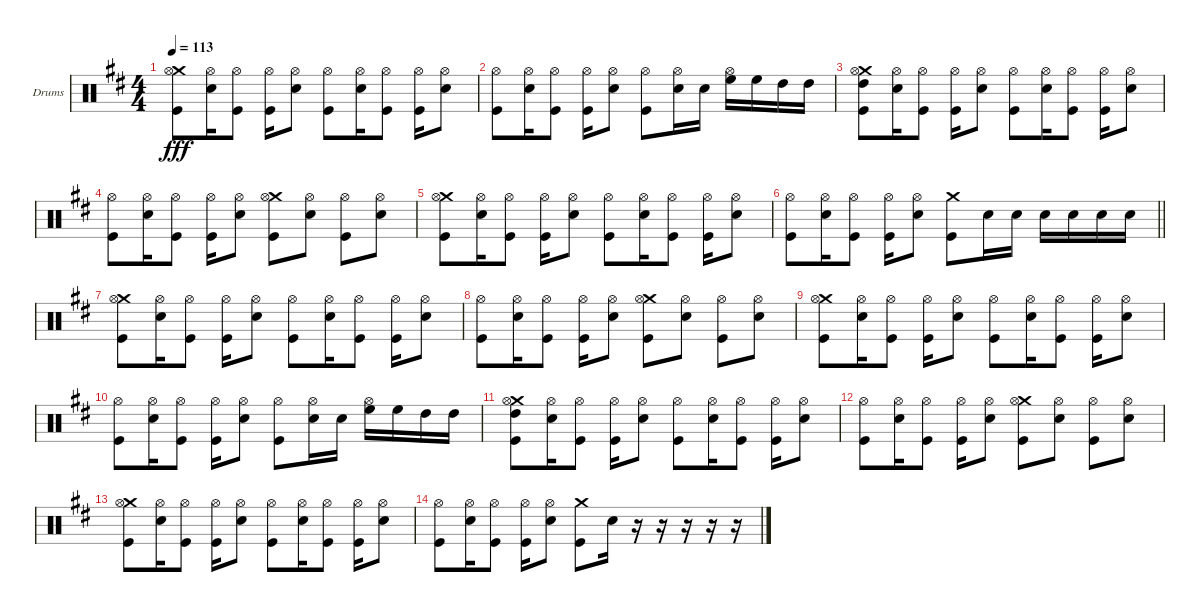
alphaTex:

\bracketExtendMode groupsimilarinstruments
\firstSystemTrackNameOrientation horizontal
\otherSystemsTrackNameOrientation horizontal
\track ("Drumkit" "Drums") {instrument percussion}
\staff {score}
\articulation defaults
\ts (4 4)
\tempo 113
\clef neutral
\ks d
("Crash medium (hit)" "Hi-Hat (open)" "Kick (hit)").8{dy fff} ("Hi-Hat (open)" "Snare (hit) 2").16 ("Hi-Hat (open)" "Kick (hit)").8 ("Hi-Hat (open)" "Kick (hit)").16 ("Hi-Hat (open)" "Snare (hit) 2").8 ("Hi-Hat (open)" "Kick (hit)").8 ("Hi-Hat (open)" "Snare (hit) 2").16 ("Hi-Hat (open)" "Kick (hit)").8 ("Hi-Hat (open)" "Kick (hit)").16 ("Hi-Hat (open)" "Snare (hit) 2").8 |
("Hi-Hat (open)" "Kick (hit)").8 ("Hi-Hat (open)" "Snare (hit) 2").16 ("Hi-Hat (open)" "Kick (hit)").8 ("Hi-Hat (open)" "Kick (hit)").16 ("Hi-Hat (open)" "Snare (hit) 2").8 ("Hi-Hat (open)" "Kick (hit)").8 ("Hi-Hat (open)" "Snare (hit) 2").16 "Snare (hit) 2".16 ("Hi-Hat (open)" "High Floor Tom (hit)").16 "High Floor Tom (hit)".16 "High Tom (hit)".16 "High Tom (hit)".16 |
("Crash medium (hit)" "Hi-Hat (open)" "High Tom (hit)" "Kick (hit)").8 ("Hi-Hat (open)" "Snare (hit) 2").16 ("Hi-Hat (open)" "Kick (hit)").8 ("Hi-Hat (open)" "Kick (hit)").16 ("Hi-Hat (open)" "Snare (hit) 2").8 ("Hi-Hat (open)" "Kick (hit)").8 ("Hi-Hat (open)" "Snare (hit) 2").16 ("Hi-Hat (open)" "Kick (hit)").8 ("Hi-Hat (open)" "Kick (hit)").16 ("Hi-Hat (open)" "Snare (hit) 2").8 |
("Hi-Hat (open)" "Kick (hit)").8 ("Hi-Hat (open)" "Snare (hit) 2").16 ("Hi-Hat (open)" "Kick (hit)").8 ("Hi-Hat (open)" "Kick (hit)").16 ("Hi-Hat (open)" "Snare (hit) 2").8 ("Crash medium (hit)" "Hi-Hat (open)" "Kick (hit)").8 ("Hi-Hat (open)" "Snare (hit) 2").8 ("Hi-Hat (open)" "Kick (hit)").8 ("Hi-Hat (open)" "Snare (hit) 2").8 |
("Crash medium (hit)" "Hi-Hat (open)" "Kick (hit)").8 ("Hi-Hat (open)" "Snare (hit) 2").16 ("Hi-Hat (open)" "Kick (hit)").8 ("Hi-Hat (open)" "Kick (hit)").16 ("Hi-Hat (open)" "Snare (hit) 2").8 ("Hi-Hat (open)" "Kick (hit)").8 ("Hi-Hat (open)" "Snare (hit) 2").16 ("Hi-Hat (open)" "Kick (hit)").8 ("Hi-Hat (open)" "Kick (hit)").16 ("Hi-Hat (open)" "Snare (hit) 2").8 |
\barLineRight lightlight
("Hi-Hat (open)" "Kick (hit)").8 ("Hi-Hat (open)" "Snare (hit) 2").16 ("Hi-Hat (open)" "Kick (hit)").8 ("Hi-Hat (open)" "Kick (hit)").16 ("Hi-Hat (open)" "Snare (hit) 2").8 ("Crash medium (hit)" "Kick (hit)").8 "Snare (hit) 2".16 "Snare (hit) 2".16 "Snare (hit) 2".16 "Snare (hit) 2".16 "Snare (hit) 2".16 "Snare (hit) 2".16 |
("Crash medium (hit)" "Hi-Hat (open)" "Kick (hit)").8 ("Hi-Hat (open)" "Snare (hit) 2").16 ("Hi-Hat (open)" "Kick (hit)").8 ("Hi-Hat (open)" "Kick (hit)").16 ("Hi-Hat (open)" "Snare (hit) 2").8 ("Hi-Hat (open)" "Kick (hit)").8 ("Hi-Hat (open)" "Snare (hit) 2").16 ("Hi-Hat (open)" "Kick (hit)").8 ("Hi-Hat (open)" "Kick (hit)").16 ("Hi-Hat (open)" "Snare (hit) 2").8 |
("Hi-Hat (open)" "Kick (hit)").8 ("Hi-Hat (open)" "Snare (hit) 2").16 ("Hi-Hat (open)" "Kick (hit)").8 ("Hi-Hat (open)" "Kick (hit)").16 ("Hi-Hat (open)" "Snare (hit) 2").8 ("Crash medium (hit)" "Hi-Hat (open)" "Kick (hit)").8 ("Hi-Hat (open)" "Snare (hit) 2").8 ("Hi-Hat (open)" "Kick (hit)").8 ("Hi-Hat (open)" "Snare (hit) 2").8 |
("Crash medium (hit)" "Hi-Hat (open)" "Kick (hit)").8 ("Hi-Hat (open)" "Snare (hit) 2").16 ("Hi-Hat (open)" "Kick (hit)").8 ("Hi-Hat (open)" "Kick (hit)").16 ("Hi-Hat (open)" "Snare (hit) 2").8 ("Hi-Hat (open)" "Kick (hit)").8 ("Hi-Hat (open)" "Snare (hit) 2").16 ("Hi-Hat (open)" "Kick (hit)").8 ("Hi-Hat (open)" "Kick (hit)").16 ("Hi-Hat (open)" "Snare (hit) 2").8 |
("Hi-Hat (open)" "Kick (hit)").8 ("Hi-Hat (open)" "Snare (hit) 2").16 ("Hi-Hat (open)" "Kick (hit)").8 ("Hi-Hat (open)" "Kick (hit)").16 ("Hi-Hat (open)" "Snare (hit) 2").8 ("Hi-Hat (open)" "Kick (hit)").8 ("Hi-Hat (open)" "Snare (hit) 2").16 "Snare (hit) 2".16 ("Hi-Hat (open)" "High Floor Tom (hit)").16 "High Floor Tom (hit)".16 "High Tom (hit)".16 "High Tom (hit)".16 |
("Crash medium (hit)" "Hi-Hat (open)" "High Tom (hit)" "Kick (hit)").8 ("Hi-Hat (open)" "Snare (hit) 2").16 ("Hi-Hat (open)" "Kick (hit)").8 ("Hi-Hat (open)" "Kick (hit)").16 ("Hi-Hat (open)" "Snare (hit) 2").8 ("Hi-Hat (open)" "Kick (hit)").8 ("Hi-Hat (open)" "Snare (hit) 2").16 ("Hi-Hat (open)" "Kick (hit)").8 ("Hi-Hat (open)" "Kick (hit)").16 ("Hi-Hat (open)" "Snare (hit) 2").8 |
("Hi-Hat (open)" "Kick (hit)").8 ("Hi-Hat (open)" "Snare (hit) 2").16 ("Hi-Hat (open)" "Kick (hit)").8 ("Hi-Hat (open)" "Kick (hit)").16 ("Hi-Hat (open)" "Snare (hit) 2").8 ("Crash medium (hit)" "Hi-Hat (open)" "Kick (hit)").8 ("Hi-Hat (open)" "Snare (hit) 2").8 ("Hi-Hat (open)" "Kick (hit)").8 ("Hi-Hat (open)" "Snare (hit) 2").8 |
("Crash medium (hit)" "Hi-Hat (open)" "Kick (hit)").8 ("Hi-Hat (open)" "Snare (hit) 2").16 ("Hi-Hat (open)" "Kick (hit)").8 ("Hi-Hat (open)" "Kick (hit)").16 ("Hi-Hat (open)" "Snare (hit) 2").8 ("Hi-Hat (open)" "Kick (hit)").8 ("Hi-Hat (open)" "Snare (hit) 2").16 ("Hi-Hat (open)" "Kick (hit)").8 ("Hi-Hat (open)" "Kick (hit)").16 ("Hi-Hat (open)" "Snare (hit) 2").8 |
("Hi-Hat (open)" "Kick (hit)").8 ("Hi-Hat (open)" "Snare (hit) 2").16 ("Hi-Hat (open)" "Kick (hit)").8 ("Hi-Hat (open)" "Kick (hit)").16 ("Hi-Hat (open)" "Snare (hit) 2").8 ("Crash medium (hit)" "Kick (hit)").8 "Snare (hit) 2".16 r.16 r.16 r.16 r.16 r.16
